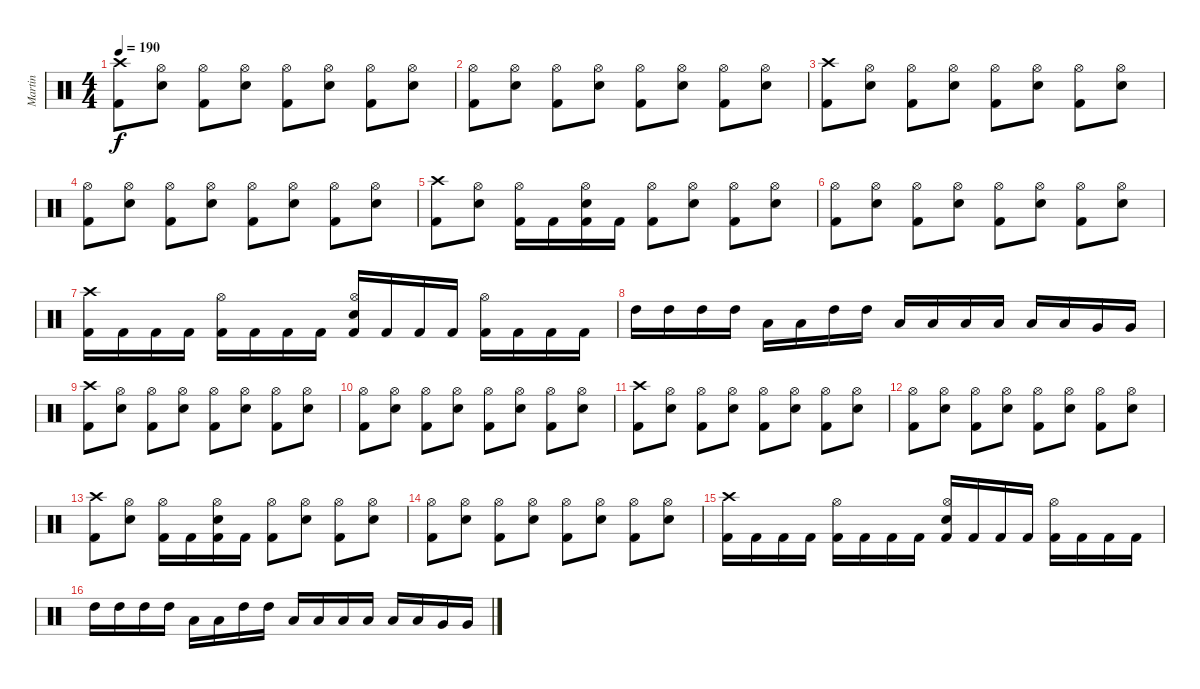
\track ("Martin" "Martin") {instrument percussion}
\staff {score}
\articulation defaults
\ts (4 4)
\tempo 190
\clef neutral
\ks c
("Crash high (hit)" "Kick (hit) 2").8{dy f} ("Hi-Hat (open)" "Snare (hit) 2").8 ("Hi-Hat (open)" "Kick (hit) 2").8 ("Hi-Hat (open)" "Snare (hit) 2").8 ("Hi-Hat (open)" "Kick (hit) 2").8 ("Hi-Hat (open)" "Snare (hit) 2").8 ("Hi-Hat (open)" "Kick (hit) 2").8 ("Hi-Hat (open)" "Snare (hit) 2").8 |
("Hi-Hat (open)" "Kick (hit) 2").8 ("Hi-Hat (open)" "Snare (hit) 2").8 ("Hi-Hat (open)" "Kick (hit) 2").8 ("Hi-Hat (open)" "Snare (hit) 2").8 ("Hi-Hat (open)" "Kick (hit) 2").8 ("Hi-Hat (open)" "Snare (hit) 2").8 ("Hi-Hat (open)" "Kick (hit) 2").8 ("Hi-Hat (open)" "Snare (hit) 2").8 |
("Crash high (hit)" "Kick (hit) 2").8 ("Hi-Hat (open)" "Snare (hit) 2").8 ("Hi-Hat (open)" "Kick (hit) 2").8 ("Hi-Hat (open)" "Snare (hit) 2").8 ("Hi-Hat (open)" "Kick (hit) 2").8 ("Hi-Hat (open)" "Snare (hit) 2").8 ("Hi-Hat (open)" "Kick (hit) 2").8 ("Hi-Hat (open)" "Snare (hit) 2").8 |
("Hi-Hat (open)" "Kick (hit) 2").8 ("Hi-Hat (open)" "Snare (hit) 2").8 ("Hi-Hat (open)" "Kick (hit) 2").8 ("Hi-Hat (open)" "Snare (hit) 2").8 ("Hi-Hat (open)" "Kick (hit) 2").8 ("Hi-Hat (open)" "Snare (hit) 2").8 ("Hi-Hat (open)" "Kick (hit) 2").8 ("Hi-Hat (open)" "Snare (hit) 2").8 |
("Crash high (hit)" "Kick (hit) 2").8 ("Hi-Hat (open)" "Snare (hit) 2").8 ("Hi-Hat (open)" "Kick (hit) 2").16 "Kick (hit) 2".16 ("Hi-Hat (open)" "Snare (hit) 2" "Kick (hit) 2").16 "Kick (hit) 2".16 ("Hi-Hat (open)" "Kick (hit) 2").8 ("Hi-Hat (open)" "Snare (hit) 2").8 ("Hi-Hat (open)" "Kick (hit) 2").8 ("Hi-Hat (open)" "Snare (hit) 2").8 |
("Hi-Hat (open)" "Kick (hit) 2").8 ("Hi-Hat (open)" "Snare (hit) 2").8 ("Hi-Hat (open)" "Kick (hit) 2").8 ("Hi-Hat (open)" "Snare (hit) 2").8 ("Hi-Hat (open)" "Kick (hit) 2").8 ("Hi-Hat (open)" "Snare (hit) 2").8 ("Hi-Hat (open)" "Kick (hit) 2").8 ("Hi-Hat (open)" "Snare (hit) 2").8 |
("Crash high (hit)" "Kick (hit) 2").16 "Kick (hit) 2".16 "Kick (hit) 2".16 "Kick (hit) 2".16 ("Hi-Hat (open)" "Kick (hit) 2").16 "Kick (hit) 2".16 "Kick (hit) 2".16 "Kick (hit) 2".16 ("Hi-Hat (open)" "Snare (hit) 2" "Kick (hit) 2").16 "Kick (hit) 2".16 "Kick (hit) 2".16 "Kick (hit) 2".16 ("Hi-Hat (open)" "Kick (hit) 2").16 "Kick (hit) 2".16 "Kick (hit) 2".16 "Kick (hit) 2".16 |
"High Tom (hit)".16 "High Tom (hit)".16 "High Tom (hit)".16 "High Tom (hit)".16 "Low Tom (hit)".16 "Low Tom (hit)".16 "High Tom (hit)".16 "High Tom (hit)".16 "Low Tom (hit)".16 "Low Tom (hit)".16 "Low Tom (hit)".16 "Low Tom (hit)".16 "Low Tom (hit)".16 "Low Tom (hit)".16 "Very Low Tom (hit)".16 "Very Low Tom (hit)".16 |
("Crash high (hit)" "Kick (hit) 2").8 ("Hi-Hat (open)" "Snare (hit) 2").8 ("Hi-Hat (open)" "Kick (hit) 2").8 ("Hi-Hat (open)" "Snare (hit) 2").8 ("Hi-Hat (open)" "Kick (hit) 2").8 ("Hi-Hat (open)" "Snare (hit) 2").8 ("Hi-Hat (open)" "Kick (hit) 2").8 ("Hi-Hat (open)" "Snare (hit) 2").8 |
("Hi-Hat (open)" "Kick (hit) 2").8 ("Hi-Hat (open)" "Snare (hit) 2").8 ("Hi-Hat (open)" "Kick (hit) 2").8 ("Hi-Hat (open)" "Snare (hit) 2").8 ("Hi-Hat (open)" "Kick (hit) 2").8 ("Hi-Hat (open)" "Snare (hit) 2").8 ("Hi-Hat (open)" "Kick (hit) 2").8 ("Hi-Hat (open)" "Snare (hit) 2").8 |
("Crash high (hit)" "Kick (hit) 2").8 ("Hi-Hat (open)" "Snare (hit) 2").8 ("Hi-Hat (open)" "Kick (hit) 2").8 ("Hi-Hat (open)" "Snare (hit) 2").8 ("Hi-Hat (open)" "Kick (hit) 2").8 ("Hi-Hat (open)" "Snare (hit) 2").8 ("Hi-Hat (open)" "Kick (hit) 2").8 ("Hi-Hat (open)" "Snare (hit) 2").8 |
("Hi-Hat (open)" "Kick (hit) 2").8 ("Hi-Hat (open)" "Snare (hit) 2").8 ("Hi-Hat (open)" "Kick (hit) 2").8 ("Hi-Hat (open)" "Snare (hit) 2").8 ("Hi-Hat (open)" "Kick (hit) 2").8 ("Hi-Hat (open)" "Snare (hit) 2").8 ("Hi-Hat (open)" "Kick (hit) 2").8 ("Hi-Hat (open)" "Snare (hit) 2").8 |
("Crash high (hit)" "Kick (hit) 2").8 ("Hi-Hat (open)" "Snare (hit) 2").8 ("Hi-Hat (open)" "Kick (hit) 2").16 "Kick (hit) 2".16 ("Hi-Hat (open)" "Snare (hit) 2" "Kick (hit) 2").16 "Kick (hit) 2".16 ("Hi-Hat (open)" "Kick (hit) 2").8 ("Hi-Hat (open)" "Snare (hit) 2").8 ("Hi-Hat (open)" "Kick (hit) 2").8 ("Hi-Hat (open)" "Snare (hit) 2").8 |
("Hi-Hat (open)" "Kick (hit) 2").8 ("Hi-Hat (open)" "Snare (hit) 2").8 ("Hi-Hat (open)" "Kick (hit) 2").8 ("Hi-Hat (open)" "Snare (hit) 2").8 ("Hi-Hat (open)" "Kick (hit) 2").8 ("Hi-Hat (open)" "Snare (hit) 2").8 ("Hi-Hat (open)" "Kick (hit) 2").8 ("Hi-Hat (open)" "Snare (hit) 2").8 |
("Crash high (hit)" "Kick (hit) 2").16 "Kick (hit) 2".16 "Kick (hit) 2".16 "Kick (hit) 2".16 ("Hi-Hat (open)" "Kick (hit) 2").16 "Kick (hit) 2".16 "Kick (hit) 2".16 "Kick (hit) 2".16 ("Hi-Hat (open)" "Snare (hit) 2" "Kick (hit) 2").16 "Kick (hit) 2".16 "Kick (hit) 2".16 "Kick (hit) 2".16 ("Hi-Hat (open)" "Kick (hit) 2").16 "Kick (hit) 2".16 "Kick (hit) 2".16 "Kick (hit) 2".16 |
"High Tom (hit)".16 "High Tom (hit)".16 "High Tom (hit)".16 "High Tom (hit)".16 "Low Tom (hit)".16 "Low Tom (hit)".16 "High Tom (hit)".16 "High Tom (hit)".16 "Low Tom (hit)".16 "Low Tom (hit)".16 "Low Tom (hit)".16 "Low Tom (hit)".16 "Low Tom (hit)".16 "Low Tom (hit)".16 "Very Low Tom (hit)".16 "Very Low Tom (hit)".16
